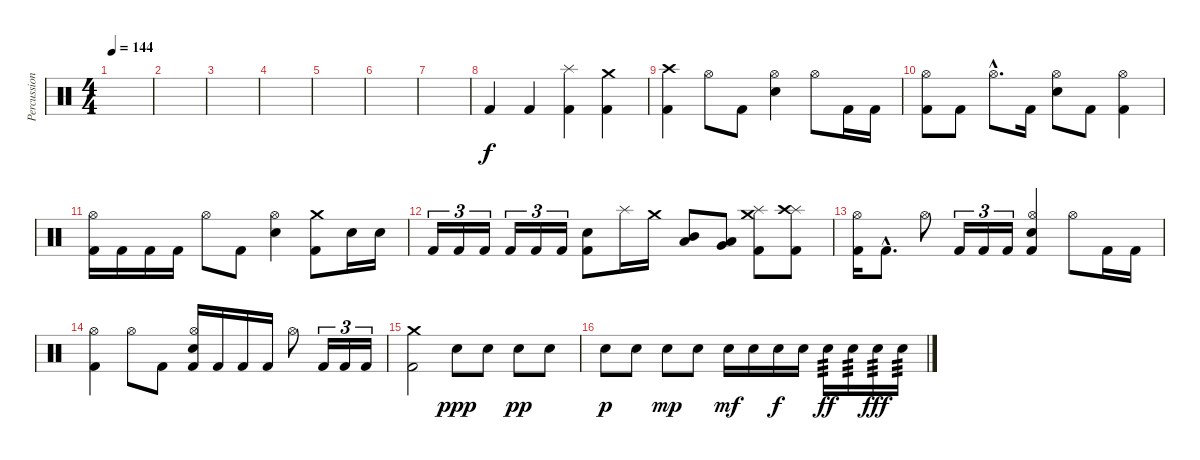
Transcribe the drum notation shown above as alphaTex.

\track ("Percussion" "Percussion") {instrument percussion}
\staff {score}
\articulation defaults
\ts (4 4)
\tempo 144
\clef neutral
\ks c
|
|
|
|
|
|
|
"Kick (hit) 2".4 "Kick (hit) 2".4 ("Splash (hit)" "Kick (hit) 2").4 ("Crash medium (hit)" "Kick (hit) 2").4 |
("Crash high (hit)" "Kick (hit) 2").4 "Hi-Hat (open)".8 "Kick (hit) 2".8 ("Hi-Hat (open)" "Electric Snare (hit)").4 "Hi-Hat (open)".8 "Kick (hit) 2".16 "Kick (hit) 2".16 |
("Hi-Hat (open)" "Kick (hit) 2").8 "Kick (hit) 2".8 "Hi-Hat (open)"{hac}.8{d} "Kick (hit) 2".16 ("Hi-Hat (open)" "Electric Snare (hit)").8 "Kick (hit) 2".8 ("Hi-Hat (open)" "Kick (hit) 2").4 |
("Hi-Hat (open)" "Kick (hit) 2").16 "Kick (hit) 2".16 "Kick (hit) 2".16 "Kick (hit) 2".16 "Hi-Hat (open)".8 "Kick (hit) 2".8 ("Hi-Hat (open)" "Electric Snare (hit)").4 ("Crash medium (hit)" "Kick (hit) 2").8 "Electric Snare (hit)".16 "Electric Snare (hit)".16 |
"Kick (hit) 2".16{tu (3 2)} "Kick (hit) 2".16{tu (3 2)} "Kick (hit) 2".16{tu (3 2)} "Kick (hit) 2".16{tu (3 2)} "Kick (hit) 2".16{tu (3 2)} "Kick (hit) 2".16{tu (3 2)} ("Electric Snare (hit)" "Kick (hit) 2").8 "Splash (hit)".16 "Crash medium (hit)".16 ("Mid Tom (hit)" "Low Tom (hit)").8 ("Low Tom (hit)" "Very Low Tom (hit)").8 ("Splash (hit)" "Crash medium (hit)" "Kick (hit) 2").8 ("Splash (hit)" "Crash high (hit)" "Kick (hit) 2").8 |
("Hi-Hat (open)" "Kick (hit) 2").16 "Kick (hit) 2"{hac}.8{d} "Hi-Hat (open)".8 "Kick (hit) 2".16{tu (3 2)} "Kick (hit) 2".16{tu (3 2)} "Kick (hit) 2".16{tu (3 2)} ("Hi-Hat (open)" "Electric Snare (hit)" "Kick (hit) 2").4 "Hi-Hat (open)".8 "Kick (hit) 2".16 "Kick (hit) 2".16 |
("Hi-Hat (open)" "Kick (hit) 2").4 "Hi-Hat (open)".8 "Kick (hit) 2".8 ("Hi-Hat (open)" "Electric Snare (hit)" "Kick (hit) 2").16 "Kick (hit) 2".16 "Kick (hit) 2".16 "Kick (hit) 2".16 "Hi-Hat (open)".8 "Kick (hit) 2".16{tu (3 2)} "Kick (hit) 2".16{tu (3 2)} "Kick (hit) 2".16{tu (3 2)} |
("Crash medium (hit)" "Kick (hit) 2").2 "Electric Snare (hit)".8{dy ppp} "Electric Snare (hit)".8 "Electric Snare (hit)".8{dy pp} "Electric Snare (hit)".8 |
"Electric Snare (hit)".8{dy p} "Electric Snare (hit)".8 "Electric Snare (hit)".8{dy mp} "Electric Snare (hit)".8 "Electric Snare (hit)".16{dy mf} "Electric Snare (hit)".16 "Electric Snare (hit)".16{dy f} "Electric Snare (hit)".16 "Electric Snare (hit)".16{tp 3 dy ff} "Electric Snare (hit)".16{tp 3} "Electric Snare (hit)".16{tp 3 dy fff} "Electric Snare (hit)".16{tp 3}
